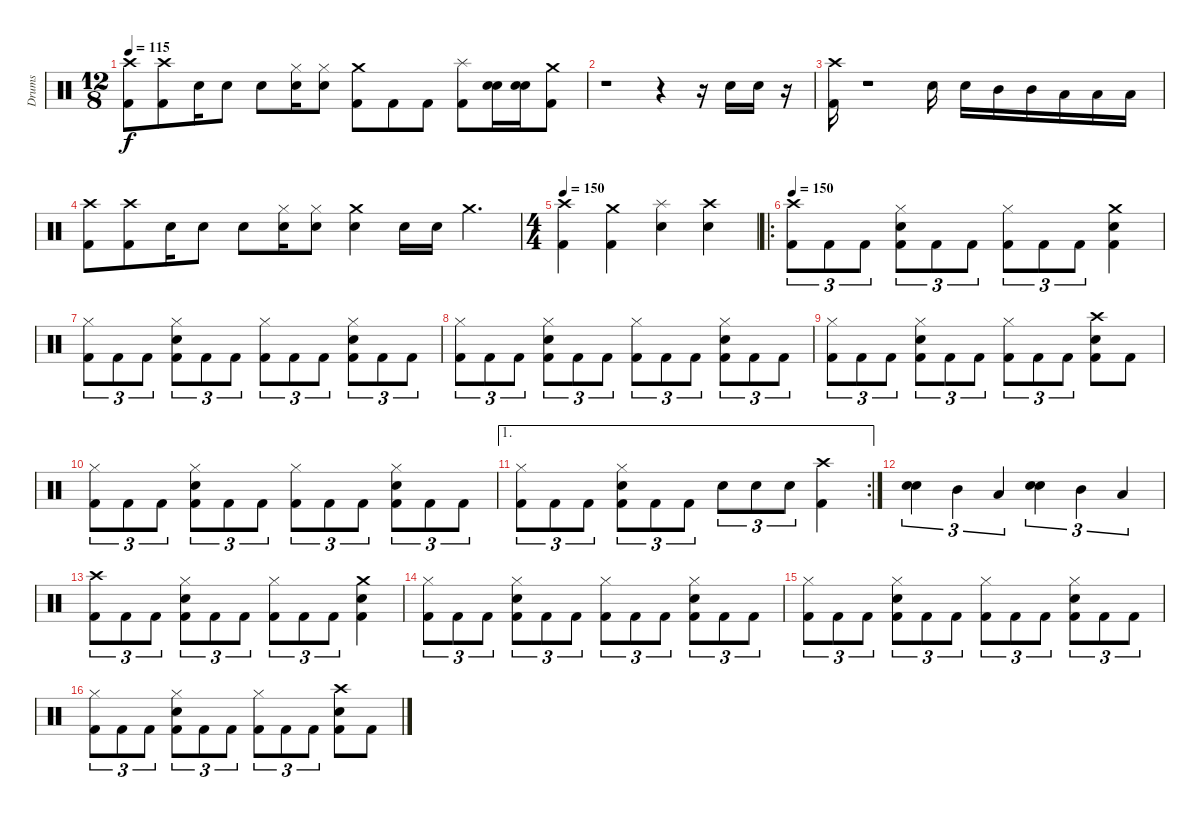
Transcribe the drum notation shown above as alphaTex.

\track ("Drums" "Drums") {instrument percussion}
\staff {score}
\articulation defaults
\ts (12 8)
\tempo 115
\clef neutral
\ks c
("Crash high (hit)" "Kick (hit) 2").8{dy f} ("Crash high (hit)" "Kick (hit) 2").8 "Snare (hit) 2".16 "Snare (hit) 2".8 "Snare (hit) 2".8 ("Hi-Hat (closed)" "Snare (hit) 2").16 ("Hi-Hat (closed)" "Snare (hit) 2").8 ("Crash medium (hit)" "Kick (hit) 2").8 "Kick (hit) 2".8 "Kick (hit) 2".8 ("Splash (hit)" "Kick (hit) 2").8 ("Snare (hit) 2" "Snare (hit) 2").16 ("Snare (hit) 2" "Snare (hit) 2").16 ("Crash medium (hit)" "Kick (hit) 2").8 |
r.1 r.4 r.16 "Snare (hit) 2".16 "Snare (hit) 2".16 r.16 |
("Crash high (hit)" "Kick (hit) 2").16 r.1 "Snare (hit) 2".16 "Snare (hit) 2".16 "Mid Tom (hit)".16 "Mid Tom (hit)".16 "Low Tom (hit)".16 "Low Tom (hit)".16 "Low Tom (hit)".16 |
("Crash high (hit)" "Kick (hit) 2").8 ("Crash high (hit)" "Kick (hit) 2").8 "Snare (hit) 2".16 "Snare (hit) 2".8 "Snare (hit) 2".8 ("Hi-Hat (closed)" "Snare (hit) 2").16 ("Hi-Hat (closed)" "Snare (hit) 2").8 ("Crash medium (hit)" "Snare (hit) 2").4 "Snare (hit) 2".16 "Snare (hit) 2".16 "Crash medium (hit)".4{d} |
\ts (4 4)
\tempo 150
("Crash high (hit)" "Kick (hit) 2").4 ("Crash medium (hit)" "Kick (hit) 2").4 ("Splash (hit)" "Snare (hit) 2").4 ("Crash high (hit)" "Snare (hit) 2").4 |
\ro
\tempo 150
("Crash high (hit)" "Kick (hit) 2").8{tu (3 2)} "Kick (hit) 2".8{tu (3 2)} "Kick (hit) 2".8{tu (3 2)} ("Hi-Hat (closed)" "Snare (hit) 2" "Kick (hit) 2").8{tu (3 2)} "Kick (hit) 2".8{tu (3 2)} "Kick (hit) 2".8{tu (3 2)} ("Hi-Hat (closed)" "Kick (hit) 2").8{tu (3 2)} "Kick (hit) 2".8{tu (3 2)} "Kick (hit) 2".8{tu (3 2)} ("Crash medium (hit)" "Snare (hit) 2" "Kick (hit) 2").4 |
("Hi-Hat (closed)" "Kick (hit) 2").8{tu (3 2)} "Kick (hit) 2".8{tu (3 2)} "Kick (hit) 2".8{tu (3 2)} ("Hi-Hat (closed)" "Snare (hit) 2" "Kick (hit) 2").8{tu (3 2)} "Kick (hit) 2".8{tu (3 2)} "Kick (hit) 2".8{tu (3 2)} ("Hi-Hat (closed)" "Kick (hit) 2").8{tu (3 2)} "Kick (hit) 2".8{tu (3 2)} "Kick (hit) 2".8{tu (3 2)} ("Hi-Hat (closed)" "Snare (hit) 2" "Kick (hit) 2").8{tu (3 2)} "Kick (hit) 2".8{tu (3 2)} "Kick (hit) 2".8{tu (3 2)} |
("Hi-Hat (closed)" "Kick (hit) 2").8{tu (3 2)} "Kick (hit) 2".8{tu (3 2)} "Kick (hit) 2".8{tu (3 2)} ("Hi-Hat (closed)" "Snare (hit) 2" "Kick (hit) 2").8{tu (3 2)} "Kick (hit) 2".8{tu (3 2)} "Kick (hit) 2".8{tu (3 2)} ("Hi-Hat (closed)" "Kick (hit) 2").8{tu (3 2)} "Kick (hit) 2".8{tu (3 2)} "Kick (hit) 2".8{tu (3 2)} ("Hi-Hat (closed)" "Snare (hit) 2" "Kick (hit) 2").8{tu (3 2)} "Kick (hit) 2".8{tu (3 2)} "Kick (hit) 2".8{tu (3 2)} |
("Hi-Hat (closed)" "Kick (hit) 2").8{tu (3 2)} "Kick (hit) 2".8{tu (3 2)} "Kick (hit) 2".8{tu (3 2)} ("Hi-Hat (closed)" "Snare (hit) 2" "Kick (hit) 2").8{tu (3 2)} "Kick (hit) 2".8{tu (3 2)} "Kick (hit) 2".8{tu (3 2)} ("Hi-Hat (closed)" "Kick (hit) 2").8{tu (3 2)} "Kick (hit) 2".8{tu (3 2)} "Kick (hit) 2".8{tu (3 2)} ("Crash high (hit)" "Snare (hit) 2" "Kick (hit) 2").8 "Kick (hit) 2".8 |
("Hi-Hat (closed)" "Kick (hit) 2").8{tu (3 2)} "Kick (hit) 2".8{tu (3 2)} "Kick (hit) 2".8{tu (3 2)} ("Hi-Hat (closed)" "Snare (hit) 2" "Kick (hit) 2").8{tu (3 2)} "Kick (hit) 2".8{tu (3 2)} "Kick (hit) 2".8{tu (3 2)} ("Hi-Hat (closed)" "Kick (hit) 2").8{tu (3 2)} "Kick (hit) 2".8{tu (3 2)} "Kick (hit) 2".8{tu (3 2)} ("Hi-Hat (closed)" "Snare (hit) 2" "Kick (hit) 2").8{tu (3 2)} "Kick (hit) 2".8{tu (3 2)} "Kick (hit) 2".8{tu (3 2)} |
\ae 1
\rc 2
("Hi-Hat (closed)" "Kick (hit) 2").8{tu (3 2)} "Kick (hit) 2".8{tu (3 2)} "Kick (hit) 2".8{tu (3 2)} ("Hi-Hat (closed)" "Snare (hit) 2" "Kick (hit) 2").8{tu (3 2)} "Kick (hit) 2".8{tu (3 2)} "Kick (hit) 2".8{tu (3 2)} "Snare (hit) 2".8{tu (3 2)} "Snare (hit) 2".8{tu (3 2)} "Snare (hit) 2".8{tu (3 2)} ("Crash high (hit)" "Kick (hit) 2").4 |
("Snare (hit) 2" "Snare (hit) 2").4{tu (3 2)} "Mid Tom (hit)".4{tu (3 2)} "Low Tom (hit)".4{tu (3 2)} ("Snare (hit) 2" "Snare (hit) 2").4{tu (3 2)} "Mid Tom (hit)".4{tu (3 2)} "Low Tom (hit)".4{tu (3 2)} |
("Crash high (hit)" "Kick (hit) 2").8{tu (3 2)} "Kick (hit) 2".8{tu (3 2)} "Kick (hit) 2".8{tu (3 2)} ("Hi-Hat (closed)" "Snare (hit) 2" "Kick (hit) 2").8{tu (3 2)} "Kick (hit) 2".8{tu (3 2)} "Kick (hit) 2".8{tu (3 2)} ("Hi-Hat (closed)" "Kick (hit) 2").8{tu (3 2)} "Kick (hit) 2".8{tu (3 2)} "Kick (hit) 2".8{tu (3 2)} ("Crash medium (hit)" "Snare (hit) 2" "Kick (hit) 2").4 |
("Hi-Hat (closed)" "Kick (hit) 2").8{tu (3 2)} "Kick (hit) 2".8{tu (3 2)} "Kick (hit) 2".8{tu (3 2)} ("Hi-Hat (closed)" "Snare (hit) 2" "Kick (hit) 2").8{tu (3 2)} "Kick (hit) 2".8{tu (3 2)} "Kick (hit) 2".8{tu (3 2)} ("Hi-Hat (closed)" "Kick (hit) 2").8{tu (3 2)} "Kick (hit) 2".8{tu (3 2)} "Kick (hit) 2".8{tu (3 2)} ("Hi-Hat (closed)" "Snare (hit) 2" "Kick (hit) 2").8{tu (3 2)} "Kick (hit) 2".8{tu (3 2)} "Kick (hit) 2".8{tu (3 2)} |
("Hi-Hat (closed)" "Kick (hit) 2").8{tu (3 2)} "Kick (hit) 2".8{tu (3 2)} "Kick (hit) 2".8{tu (3 2)} ("Hi-Hat (closed)" "Snare (hit) 2" "Kick (hit) 2").8{tu (3 2)} "Kick (hit) 2".8{tu (3 2)} "Kick (hit) 2".8{tu (3 2)} ("Hi-Hat (closed)" "Kick (hit) 2").8{tu (3 2)} "Kick (hit) 2".8{tu (3 2)} "Kick (hit) 2".8{tu (3 2)} ("Hi-Hat (closed)" "Snare (hit) 2" "Kick (hit) 2").8{tu (3 2)} "Kick (hit) 2".8{tu (3 2)} "Kick (hit) 2".8{tu (3 2)} |
("Hi-Hat (closed)" "Kick (hit) 2").8{tu (3 2)} "Kick (hit) 2".8{tu (3 2)} "Kick (hit) 2".8{tu (3 2)} ("Hi-Hat (closed)" "Snare (hit) 2" "Kick (hit) 2").8{tu (3 2)} "Kick (hit) 2".8{tu (3 2)} "Kick (hit) 2".8{tu (3 2)} ("Hi-Hat (closed)" "Kick (hit) 2").8{tu (3 2)} "Kick (hit) 2".8{tu (3 2)} "Kick (hit) 2".8{tu (3 2)} ("Crash high (hit)" "Snare (hit) 2" "Kick (hit) 2").8 "Kick (hit) 2".8
